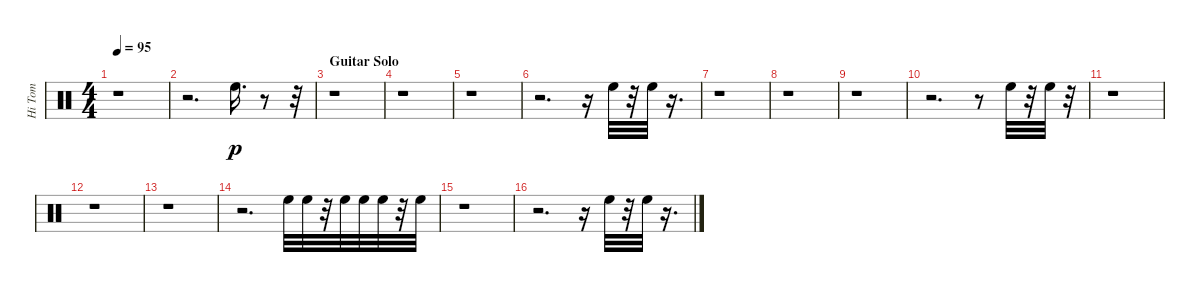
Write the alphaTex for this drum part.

\track ("Hi Tom" "Hi Tom") {instrument percussion}
\staff {score}
\articulation defaults
\ts (4 4)
\tempo 95
\clef neutral
\ks c
r.1{dy p} |
r.2{d} "High Floor Tom (hit)".16{d} r.8 r.32 |
\section ("" "Guitar Solo")
r.1 |
r.1 |
r.1 |
r.2{d} r.16 "High Floor Tom (hit)".32 r.32 "High Floor Tom (hit)".32 r.16{d} |
r.1 |
r.1 |
r.1 |
r.2{d} r.8 "High Floor Tom (hit)".32 r.32 "High Floor Tom (hit)".32 r.32 |
r.1 |
r.1 |
r.1 |
r.2{d} "High Floor Tom (hit)".32 "High Floor Tom (hit)".32 r.32 "High Floor Tom (hit)".32 "High Floor Tom (hit)".32 "High Floor Tom (hit)".32 r.32 "High Floor Tom (hit)".32 |
r.1 |
r.2{d} r.16 "High Floor Tom (hit)".32 r.32 "High Floor Tom (hit)".32 r.16{d}
